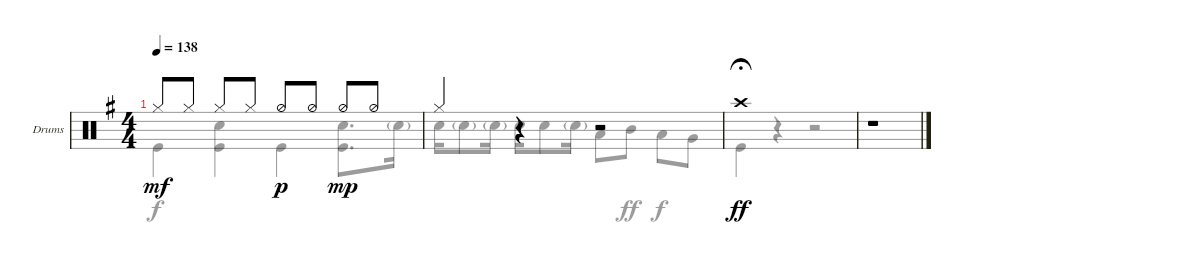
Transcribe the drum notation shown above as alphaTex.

\defaultSystemsLayout 4
\bracketExtendMode groupsimilarinstruments
\useSystemSignSeparator
\multiBarRest
\multiTrackTrackNamePolicy allsystems
\firstSystemTrackNameMode fullname
\firstSystemTrackNameOrientation horizontal
\otherSystemsTrackNameOrientation horizontal
\defaultBarNumberDisplay FirstOfSystem
\track ("Drums" "Dr.") {multiBarRest instrument percussion}
\staff {score}
\articulation defaults
\voice
\ts (4 4)
\tempo 138
\clef neutral
\ks g "Hi-Hat (closed)".8{dy mf} "Hi-Hat (closed)".8 "Hi-Hat (closed)".8 "Hi-Hat (closed)".8 "Hi-Hat (half)".8{dy p} "Hi-Hat (half)".8 "Hi-Hat (half)".8{dy mp} "Hi-Hat (half)".8
|
"Hi-Hat (closed)".4 r.4 r.2 |
"Crash high (hit)".1{dy ff fermata (medium 0.52)} |
r.1
\voice
\clef neutral
\ottava regular
\simile none
\ks g "Kick (hit)".4{dy f}
("Kick (hit)" "Snare (hit) 2").4 "Kick (hit)".4 ("Kick (hit)" "Snare (hit) 2").8{d} "Snare (hit) 2"{g}.16 |
"Snare (hit) 2".16 "Snare (hit) 2"{g}.8 "Snare (hit) 2"{g}.16 "Snare (hit) 2".16 "Snare (hit) 2".8 "Snare (hit) 2"{g}.16 "Low Tom (hit)".8 "Mid Tom (hit)".8{dy ff} "Low Tom (hit)".8{dy f} "Very Low Tom (hit)".8 |
"Kick (hit)".4{dy ff fermata (medium 0.52)} r.4 r.2 |
